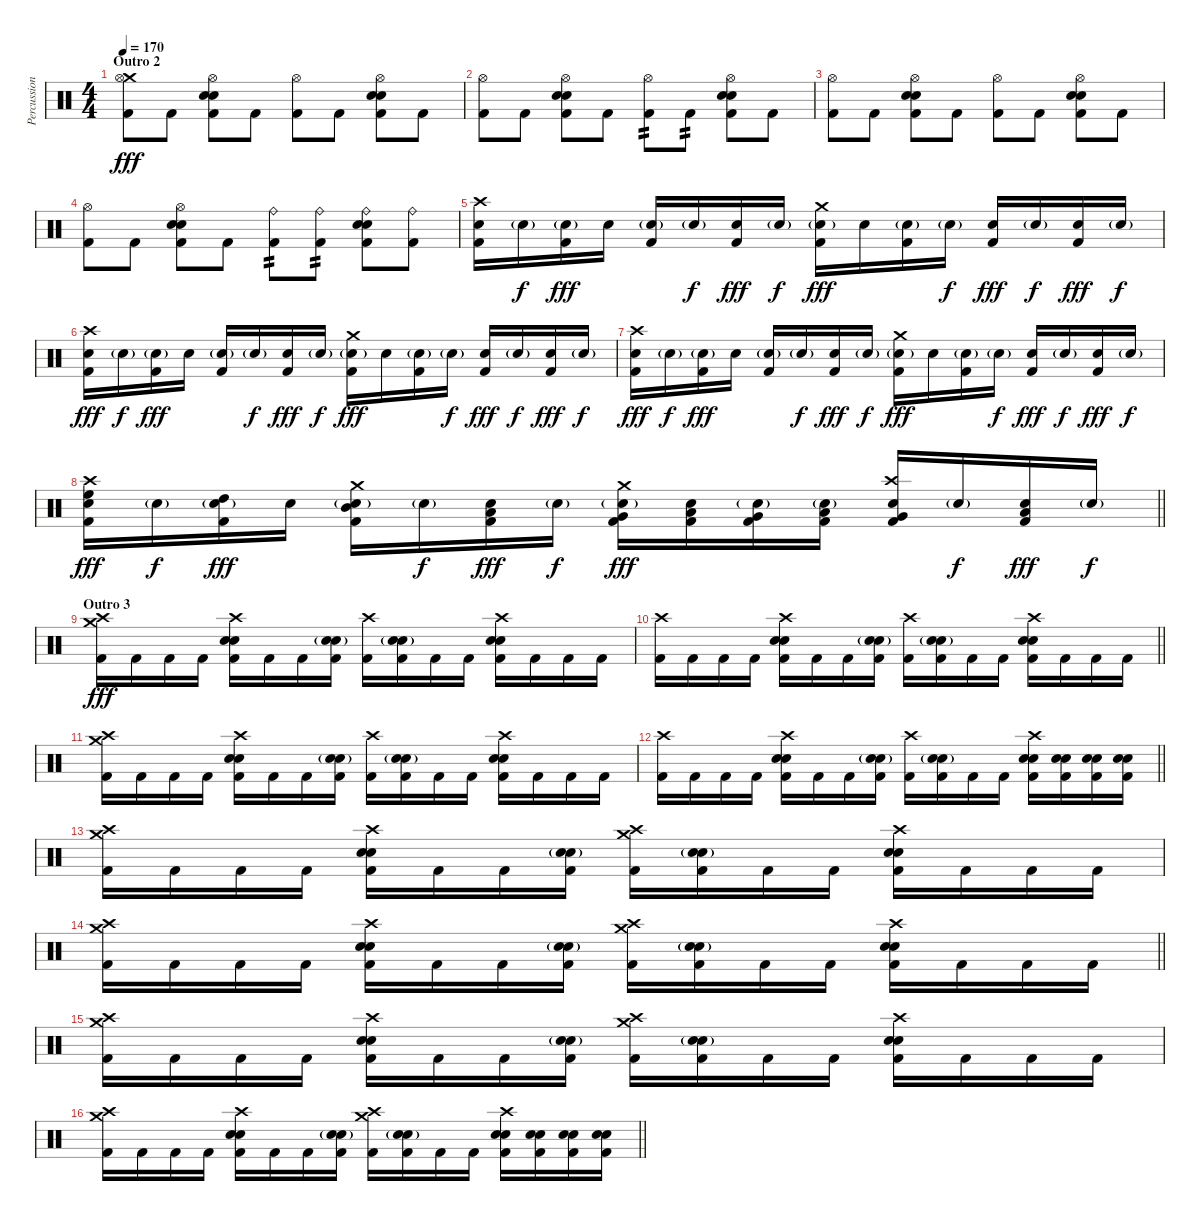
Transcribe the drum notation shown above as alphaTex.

\track ("Percussion" "Percussion") {instrument percussion}
\staff {score}
\articulation defaults
\ts (4 4)
\section ("" "Outro 2")
\tempo 170
\clef neutral
\ks c
("Crash medium (hit)" "Hi-Hat (open)" "Kick (hit) 2").8{dy fff} "Kick (hit) 2".8 ("Hi-Hat (open)" "Snare (hit) 2" "Electric Snare (hit)" "Kick (hit) 2").8 "Kick (hit) 2".8 ("Hi-Hat (open)" "Kick (hit) 2").8 "Kick (hit) 2".8 ("Hi-Hat (open)" "Snare (hit) 2" "Electric Snare (hit)" "Kick (hit) 2").8 "Kick (hit) 2".8 |
("Hi-Hat (open)" "Kick (hit) 2").8 "Kick (hit) 2".8 ("Hi-Hat (open)" "Snare (hit) 2" "Electric Snare (hit)" "Kick (hit) 2").8 "Kick (hit) 2".8 ("Hi-Hat (open)" "Kick (hit) 2").8{tp 2} "Kick (hit) 2".8{tp 2} ("Hi-Hat (open)" "Snare (hit) 2" "Electric Snare (hit)" "Kick (hit) 2").8 "Kick (hit) 2".8 |
("Hi-Hat (open)" "Kick (hit) 2").8 "Kick (hit) 2".8 ("Hi-Hat (open)" "Snare (hit) 2" "Electric Snare (hit)" "Kick (hit) 2").8 "Kick (hit) 2".8 ("Hi-Hat (open)" "Kick (hit) 2").8 "Kick (hit) 2".8 ("Hi-Hat (open)" "Snare (hit) 2" "Electric Snare (hit)" "Kick (hit) 2").8 "Kick (hit) 2".8 |
("Hi-Hat (open)" "Kick (hit) 2").8 "Kick (hit) 2".8 ("Hi-Hat (open)" "Snare (hit) 2" "Electric Snare (hit)" "Kick (hit) 2").8 "Kick (hit) 2".8 ("Ride (bell)" "Kick (hit) 2").8{tp 2} ("Ride (bell)" "Kick (hit) 2").8{tp 2} ("Ride (bell)" "Snare (hit) 2" "Electric Snare (hit)" "Kick (hit) 2").8 ("Ride (bell)" "Kick (hit) 2").8 |
("Crash high (hit)" "Electric Snare (hit)" "Kick (hit) 2").16 "Electric Snare (hit)"{g}.16{dy f} ("Electric Snare (hit)"{g} "Kick (hit) 2").16{dy fff} "Electric Snare (hit)".16 ("Electric Snare (hit)"{g} "Kick (hit) 2").16 "Electric Snare (hit)"{g}.16{dy f} ("Electric Snare (hit)" "Kick (hit) 2").16{dy fff} "Electric Snare (hit)"{g}.16{dy f} ("Crash medium (hit)" "Electric Snare (hit)"{g} "Kick (hit) 2").16{dy fff} "Electric Snare (hit)".16 ("Electric Snare (hit)"{g} "Kick (hit) 2").16 "Electric Snare (hit)"{g}.16{dy f} ("Electric Snare (hit)" "Kick (hit) 2").16{dy fff} "Electric Snare (hit)"{g}.16{dy f} ("Electric Snare (hit)" "Kick (hit) 2").16{dy fff} "Electric Snare (hit)"{g}.16{dy f} |
("Crash high (hit)" "Electric Snare (hit)" "Kick (hit) 2").16{dy fff} "Electric Snare (hit)"{g}.16{dy f} ("Electric Snare (hit)"{g} "Kick (hit) 2").16{dy fff} "Electric Snare (hit)".16 ("Electric Snare (hit)"{g} "Kick (hit) 2").16 "Electric Snare (hit)"{g}.16{dy f} ("Electric Snare (hit)" "Kick (hit) 2").16{dy fff} "Electric Snare (hit)"{g}.16{dy f} ("Crash medium (hit)" "Electric Snare (hit)"{g} "Kick (hit) 2").16{dy fff} "Electric Snare (hit)".16 ("Electric Snare (hit)"{g} "Kick (hit) 2").16 "Electric Snare (hit)"{g}.16{dy f} ("Electric Snare (hit)" "Kick (hit) 2").16{dy fff} "Electric Snare (hit)"{g}.16{dy f} ("Electric Snare (hit)" "Kick (hit) 2").16{dy fff} "Electric Snare (hit)"{g}.16{dy f} |
("Crash high (hit)" "Electric Snare (hit)" "Kick (hit) 2").16{dy fff} "Electric Snare (hit)"{g}.16{dy f} ("Electric Snare (hit)"{g} "Kick (hit) 2").16{dy fff} "Electric Snare (hit)".16 ("Electric Snare (hit)"{g} "Kick (hit) 2").16 "Electric Snare (hit)"{g}.16{dy f} ("Electric Snare (hit)" "Kick (hit) 2").16{dy fff} "Electric Snare (hit)"{g}.16{dy f} ("Crash medium (hit)" "Electric Snare (hit)"{g} "Kick (hit) 2").16{dy fff} "Electric Snare (hit)".16 ("Electric Snare (hit)"{g} "Kick (hit) 2").16 "Electric Snare (hit)"{g}.16{dy f} ("Electric Snare (hit)" "Kick (hit) 2").16{dy fff} "Electric Snare (hit)"{g}.16{dy f} ("Electric Snare (hit)" "Kick (hit) 2").16{dy fff} "Electric Snare (hit)"{g}.16{dy f} |
\barLineRight lightlight
("Crash high (hit)" "Electric Snare (hit)" "High Floor Tom (hit)" "Kick (hit) 2").16{dy fff} "Electric Snare (hit)"{g}.16{dy f} ("Electric Snare (hit)"{g} "High Tom (hit)" "Kick (hit) 2").16{dy fff} "Electric Snare (hit)".16 ("Crash medium (hit)" "Electric Snare (hit)"{g} "Mid Tom (hit)" "Kick (hit) 2").16 "Electric Snare (hit)"{g}.16{dy f} ("Electric Snare (hit)" "Low Tom (hit)" "Kick (hit) 2").16{dy fff} "Electric Snare (hit)"{g}.16{dy f} ("Crash medium (hit)" "Electric Snare (hit)"{g} "Very Low Tom (hit)" "Kick (hit) 2").16{dy fff} ("Electric Snare (hit)" "Low Floor Tom (hit)" "Kick (hit) 2").16 ("Electric Snare (hit)"{g} "Very Low Tom (hit)" "Kick (hit) 2").16 ("Electric Snare (hit)"{g} "Low Floor Tom (hit)" "Kick (hit) 2").16 ("Crash high (hit)" "Electric Snare (hit)" "Very Low Tom (hit)" "Kick (hit) 2").16 "Electric Snare (hit)"{g}.16{dy f} ("Electric Snare (hit)" "Low Floor Tom (hit)" "Kick (hit) 2").16{dy fff} "Electric Snare (hit)"{g}.16{dy f} |
\section ("" "Outro 3")
("Crash high (hit)" "Crash medium (hit)" "Kick (hit) 2").16{dy fff} "Kick (hit) 2".16 "Kick (hit) 2".16 "Kick (hit) 2".16 ("Crash high (hit)" "Snare (hit) 2" "Electric Snare (hit)" "Kick (hit) 2").16 "Kick (hit) 2".16 "Kick (hit) 2".16 ("Electric Snare (hit)"{g} "Snare (hit) 2"{g} "Kick (hit) 2").16 ("Crash high (hit)" "Kick (hit) 2").16 ("Electric Snare (hit)"{g} "Snare (hit) 2"{g} "Kick (hit) 2").16 "Kick (hit) 2".16 "Kick (hit) 2".16 ("Crash high (hit)" "Snare (hit) 2" "Electric Snare (hit)" "Kick (hit) 2").16 "Kick (hit) 2".16 "Kick (hit) 2".16 "Kick (hit) 2".16 |
\barLineRight lightlight
("Crash high (hit)" "Kick (hit) 2").16 "Kick (hit) 2".16 "Kick (hit) 2".16 "Kick (hit) 2".16 ("Crash high (hit)" "Snare (hit) 2" "Electric Snare (hit)" "Kick (hit) 2").16 "Kick (hit) 2".16 "Kick (hit) 2".16 ("Electric Snare (hit)"{g} "Snare (hit) 2"{g} "Kick (hit) 2").16 ("Crash high (hit)" "Kick (hit) 2").16 ("Electric Snare (hit)"{g} "Snare (hit) 2"{g} "Kick (hit) 2").16 "Kick (hit) 2".16 "Kick (hit) 2".16 ("Crash high (hit)" "Snare (hit) 2" "Electric Snare (hit)" "Kick (hit) 2").16 "Kick (hit) 2".16 "Kick (hit) 2".16 "Kick (hit) 2".16 |
("Crash high (hit)" "Crash medium (hit)" "Kick (hit) 2").16 "Kick (hit) 2".16 "Kick (hit) 2".16 "Kick (hit) 2".16 ("Crash high (hit)" "Snare (hit) 2" "Electric Snare (hit)" "Kick (hit) 2").16 "Kick (hit) 2".16 "Kick (hit) 2".16 ("Electric Snare (hit)"{g} "Snare (hit) 2"{g} "Kick (hit) 2").16 ("Crash high (hit)" "Kick (hit) 2").16 ("Electric Snare (hit)"{g} "Snare (hit) 2"{g} "Kick (hit) 2").16 "Kick (hit) 2".16 "Kick (hit) 2".16 ("Crash high (hit)" "Snare (hit) 2" "Electric Snare (hit)" "Kick (hit) 2").16 "Kick (hit) 2".16 "Kick (hit) 2".16 "Kick (hit) 2".16 |
\barLineRight lightlight
("Crash high (hit)" "Kick (hit) 2").16 "Kick (hit) 2".16 "Kick (hit) 2".16 "Kick (hit) 2".16 ("Crash high (hit)" "Snare (hit) 2" "Electric Snare (hit)" "Kick (hit) 2").16 "Kick (hit) 2".16 "Kick (hit) 2".16 ("Electric Snare (hit)"{g} "Snare (hit) 2"{g} "Kick (hit) 2").16 ("Crash high (hit)" "Kick (hit) 2").16 ("Electric Snare (hit)"{g} "Snare (hit) 2"{g} "Kick (hit) 2").16 "Kick (hit) 2".16 "Kick (hit) 2".16 ("Crash high (hit)" "Snare (hit) 2" "Electric Snare (hit)" "Kick (hit) 2").16 ("Snare (hit) 2" "Electric Snare (hit)" "Kick (hit) 2").16 ("Snare (hit) 2" "Electric Snare (hit)" "Kick (hit) 2").16 ("Snare (hit) 2" "Electric Snare (hit)" "Kick (hit) 2").16 |
("Crash high (hit)" "Crash medium (hit)" "Kick (hit) 2").16 "Kick (hit) 2".16 "Kick (hit) 2".16 "Kick (hit) 2".16 ("Crash high (hit)" "Snare (hit) 2" "Electric Snare (hit)" "Kick (hit) 2").16 "Kick (hit) 2".16 "Kick (hit) 2".16 ("Electric Snare (hit)"{g} "Snare (hit) 2"{g} "Kick (hit) 2").16 ("Crash high (hit)" "Crash medium (hit)" "Kick (hit) 2").16 ("Electric Snare (hit)"{g} "Snare (hit) 2"{g} "Kick (hit) 2").16 "Kick (hit) 2".16 "Kick (hit) 2".16 ("Crash high (hit)" "Snare (hit) 2" "Electric Snare (hit)" "Kick (hit) 2").16 "Kick (hit) 2".16 "Kick (hit) 2".16 "Kick (hit) 2".16 |
\barLineRight lightlight
("Crash high (hit)" "Crash medium (hit)" "Kick (hit) 2").16 "Kick (hit) 2".16 "Kick (hit) 2".16 "Kick (hit) 2".16 ("Crash high (hit)" "Snare (hit) 2" "Electric Snare (hit)" "Kick (hit) 2").16 "Kick (hit) 2".16 "Kick (hit) 2".16 ("Electric Snare (hit)"{g} "Snare (hit) 2"{g} "Kick (hit) 2").16 ("Crash high (hit)" "Crash medium (hit)" "Kick (hit) 2").16 ("Electric Snare (hit)"{g} "Snare (hit) 2"{g} "Kick (hit) 2").16 "Kick (hit) 2".16 "Kick (hit) 2".16 ("Crash high (hit)" "Snare (hit) 2" "Electric Snare (hit)" "Kick (hit) 2").16 "Kick (hit) 2".16 "Kick (hit) 2".16 "Kick (hit) 2".16 |
("Crash high (hit)" "Crash medium (hit)" "Kick (hit) 2").16 "Kick (hit) 2".16 "Kick (hit) 2".16 "Kick (hit) 2".16 ("Crash high (hit)" "Snare (hit) 2" "Electric Snare (hit)" "Kick (hit) 2").16 "Kick (hit) 2".16 "Kick (hit) 2".16 ("Electric Snare (hit)"{g} "Snare (hit) 2"{g} "Kick (hit) 2").16 ("Crash high (hit)" "Crash medium (hit)" "Kick (hit) 2").16 ("Electric Snare (hit)"{g} "Snare (hit) 2"{g} "Kick (hit) 2").16 "Kick (hit) 2".16 "Kick (hit) 2".16 ("Crash high (hit)" "Snare (hit) 2" "Electric Snare (hit)" "Kick (hit) 2").16 "Kick (hit) 2".16 "Kick (hit) 2".16 "Kick (hit) 2".16 |
\barLineRight lightlight
("Crash high (hit)" "Crash medium (hit)" "Kick (hit) 2").16 "Kick (hit) 2".16 "Kick (hit) 2".16 "Kick (hit) 2".16 ("Crash high (hit)" "Snare (hit) 2" "Electric Snare (hit)" "Kick (hit) 2").16 "Kick (hit) 2".16 "Kick (hit) 2".16 ("Electric Snare (hit)"{g} "Snare (hit) 2"{g} "Kick (hit) 2").16 ("Crash high (hit)" "Crash medium (hit)" "Kick (hit) 2").16 ("Electric Snare (hit)"{g} "Snare (hit) 2"{g} "Kick (hit) 2").16 "Kick (hit) 2".16 "Kick (hit) 2".16 ("Crash high (hit)" "Snare (hit) 2" "Electric Snare (hit)" "Kick (hit) 2").16 ("Snare (hit) 2" "Electric Snare (hit)" "Kick (hit) 2").16 ("Snare (hit) 2" "Electric Snare (hit)" "Kick (hit) 2").16 ("Snare (hit) 2" "Electric Snare (hit)" "Kick (hit) 2").16
